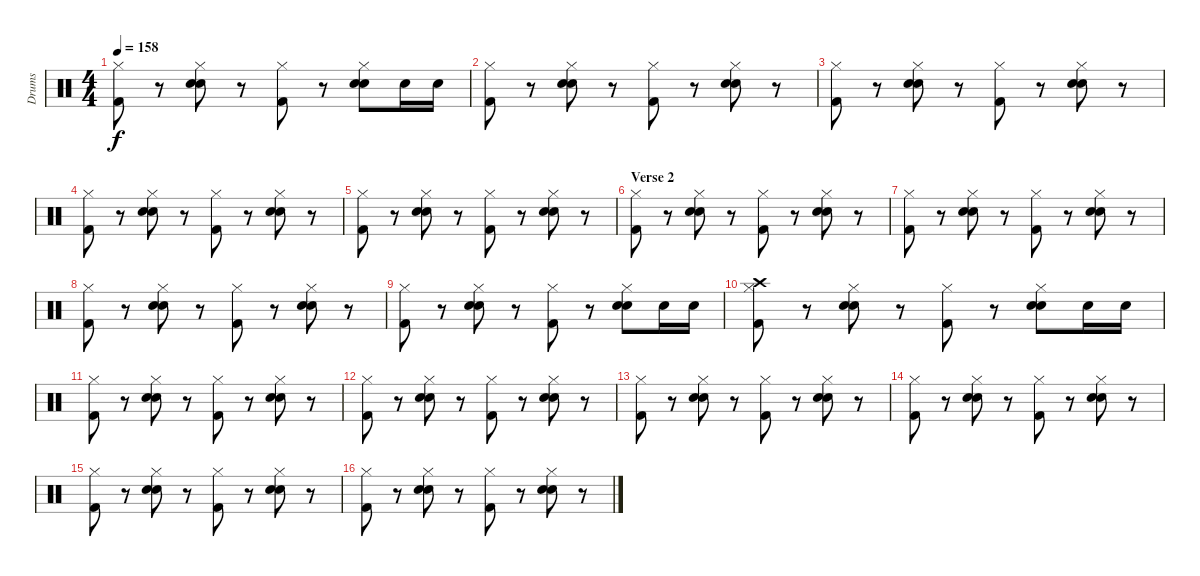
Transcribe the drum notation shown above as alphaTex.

\track ("Drums" "Drums") {instrument percussion}
\staff {score}
\articulation defaults
\ts (4 4)
\tempo 158
\clef neutral
\ks c
("Hi-Hat (closed)" "Kick (hit) 2").8{dy f} r.8 ("Hi-Hat (closed)" "Electric Snare (hit)" "Snare (hit) 2").8 r.8 ("Hi-Hat (closed)" "Kick (hit) 2").8 r.8 ("Hi-Hat (closed)" "Electric Snare (hit)" "Snare (hit) 2").8 "Snare (hit) 2".16 "Snare (hit) 2".16 |
("Hi-Hat (closed)" "Kick (hit) 2").8 r.8 ("Hi-Hat (closed)" "Electric Snare (hit)" "Snare (hit) 2").8 r.8 ("Hi-Hat (closed)" "Kick (hit) 2").8 r.8 ("Hi-Hat (closed)" "Electric Snare (hit)" "Snare (hit) 2").8 r.8 |
("Hi-Hat (closed)" "Kick (hit) 2").8 r.8 ("Hi-Hat (closed)" "Electric Snare (hit)" "Snare (hit) 2").8 r.8 ("Hi-Hat (closed)" "Kick (hit) 2").8 r.8 ("Hi-Hat (closed)" "Electric Snare (hit)" "Snare (hit) 2").8 r.8 |
("Hi-Hat (closed)" "Kick (hit) 2").8 r.8 ("Hi-Hat (closed)" "Electric Snare (hit)" "Snare (hit) 2").8 r.8 ("Hi-Hat (closed)" "Kick (hit) 2").8 r.8 ("Hi-Hat (closed)" "Electric Snare (hit)" "Snare (hit) 2").8 r.8 |
("Hi-Hat (closed)" "Kick (hit) 2").8 r.8 ("Hi-Hat (closed)" "Electric Snare (hit)" "Snare (hit) 2").8 r.8 ("Hi-Hat (closed)" "Kick (hit) 2").8 r.8 ("Hi-Hat (closed)" "Electric Snare (hit)" "Snare (hit) 2").8 r.8 |
\section ("" "Verse 2")
("Hi-Hat (closed)" "Kick (hit) 2").8 r.8 ("Hi-Hat (closed)" "Electric Snare (hit)" "Snare (hit) 2").8 r.8 ("Hi-Hat (closed)" "Kick (hit) 2").8 r.8 ("Hi-Hat (closed)" "Electric Snare (hit)" "Snare (hit) 2").8 r.8 |
("Hi-Hat (closed)" "Kick (hit) 2").8 r.8 ("Hi-Hat (closed)" "Electric Snare (hit)" "Snare (hit) 2").8 r.8 ("Hi-Hat (closed)" "Kick (hit) 2").8 r.8 ("Hi-Hat (closed)" "Electric Snare (hit)" "Snare (hit) 2").8 r.8 |
("Hi-Hat (closed)" "Kick (hit) 2").8 r.8 ("Hi-Hat (closed)" "Electric Snare (hit)" "Snare (hit) 2").8 r.8 ("Hi-Hat (closed)" "Kick (hit) 2").8 r.8 ("Hi-Hat (closed)" "Electric Snare (hit)" "Snare (hit) 2").8 r.8 |
("Hi-Hat (closed)" "Kick (hit) 2").8 r.8 ("Hi-Hat (closed)" "Electric Snare (hit)" "Snare (hit) 2").8 r.8 ("Hi-Hat (closed)" "Kick (hit) 2").8 r.8 ("Hi-Hat (closed)" "Electric Snare (hit)" "Snare (hit) 2").8 "Snare (hit) 2".16 "Snare (hit) 2".16 |
("Hi-Hat (closed)" "Crash high (hit)" "Kick (hit) 2").8 r.8 ("Hi-Hat (closed)" "Electric Snare (hit)" "Snare (hit) 2").8 r.8 ("Hi-Hat (closed)" "Kick (hit) 2").8 r.8 ("Hi-Hat (closed)" "Electric Snare (hit)" "Snare (hit) 2").8 "Snare (hit) 2".16 "Snare (hit) 2".16 |
("Hi-Hat (closed)" "Kick (hit) 2").8 r.8 ("Hi-Hat (closed)" "Electric Snare (hit)" "Snare (hit) 2").8 r.8 ("Hi-Hat (closed)" "Kick (hit) 2").8 r.8 ("Hi-Hat (closed)" "Electric Snare (hit)" "Snare (hit) 2").8 r.8 |
("Hi-Hat (closed)" "Kick (hit) 2").8 r.8 ("Hi-Hat (closed)" "Electric Snare (hit)" "Snare (hit) 2").8 r.8 ("Hi-Hat (closed)" "Kick (hit) 2").8 r.8 ("Hi-Hat (closed)" "Electric Snare (hit)" "Snare (hit) 2").8 r.8 |
("Hi-Hat (closed)" "Kick (hit) 2").8 r.8 ("Hi-Hat (closed)" "Electric Snare (hit)" "Snare (hit) 2").8 r.8 ("Hi-Hat (closed)" "Kick (hit) 2").8 r.8 ("Hi-Hat (closed)" "Electric Snare (hit)" "Snare (hit) 2").8 r.8 |
("Hi-Hat (closed)" "Kick (hit) 2").8 r.8 ("Hi-Hat (closed)" "Electric Snare (hit)" "Snare (hit) 2").8 r.8 ("Hi-Hat (closed)" "Kick (hit) 2").8 r.8 ("Hi-Hat (closed)" "Electric Snare (hit)" "Snare (hit) 2").8 r.8 |
("Hi-Hat (closed)" "Kick (hit) 2").8 r.8 ("Hi-Hat (closed)" "Electric Snare (hit)" "Snare (hit) 2").8 r.8 ("Hi-Hat (closed)" "Kick (hit) 2").8 r.8 ("Hi-Hat (closed)" "Electric Snare (hit)" "Snare (hit) 2").8 r.8 |
("Hi-Hat (closed)" "Kick (hit) 2").8 r.8 ("Hi-Hat (closed)" "Electric Snare (hit)" "Snare (hit) 2").8 r.8 ("Hi-Hat (closed)" "Kick (hit) 2").8 r.8 ("Hi-Hat (closed)" "Electric Snare (hit)" "Snare (hit) 2").8 r.8
